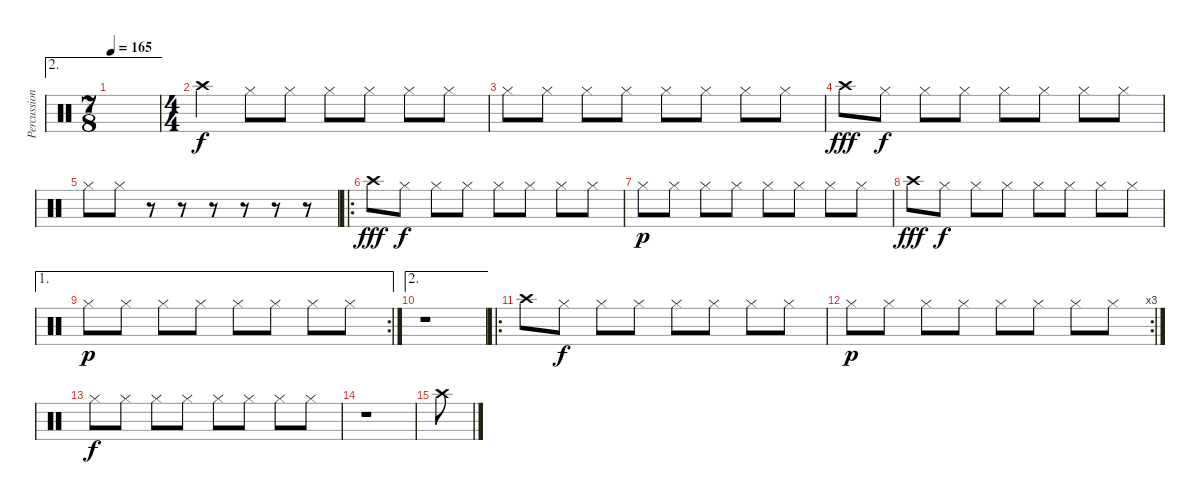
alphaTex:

\track ("Percussion" "Percussion") {instrument percussion}
\staff {score}
\articulation defaults
\ae 2
\ts (7 8)
\tempo 165
\clef neutral
\ks c
|
\ts (4 4)
"Crash high (hit)".4 "Hi-Hat (closed)".8{dy f} "Hi-Hat (closed)".8 "Hi-Hat (closed)".8 "Hi-Hat (closed)".8 "Hi-Hat (closed)".8 "Hi-Hat (closed)".8 |
"Hi-Hat (closed)".8 "Hi-Hat (closed)".8 "Hi-Hat (closed)".8 "Hi-Hat (closed)".8 "Hi-Hat (closed)".8 "Hi-Hat (closed)".8 "Hi-Hat (closed)".8 "Hi-Hat (closed)".8 |
"Crash high (hit)".8{dy fff} "Hi-Hat (closed)".8{dy f} "Hi-Hat (closed)".8 "Hi-Hat (closed)".8 "Hi-Hat (closed)".8 "Hi-Hat (closed)".8 "Hi-Hat (closed)".8 "Hi-Hat (closed)".8 |
"Hi-Hat (closed)".8 "Hi-Hat (closed)".8 r.8 r.8 r.8 r.8 r.8 r.8 |
\ro "Crash high (hit)".8{dy fff} "Hi-Hat (closed)".8{dy f} "Hi-Hat (closed)".8 "Hi-Hat (closed)".8 "Hi-Hat (closed)".8 "Hi-Hat (closed)".8 "Hi-Hat (closed)".8 "Hi-Hat (closed)".8
|
"Hi-Hat (closed)".8{dy p} "Hi-Hat (closed)".8 "Hi-Hat (closed)".8 "Hi-Hat (closed)".8 "Hi-Hat (closed)".8 "Hi-Hat (closed)".8 "Hi-Hat (closed)".8 "Hi-Hat (closed)".8 |
"Crash high (hit)".8{dy fff} "Hi-Hat (closed)".8{dy f} "Hi-Hat (closed)".8 "Hi-Hat (closed)".8 "Hi-Hat (closed)".8 "Hi-Hat (closed)".8 "Hi-Hat (closed)".8 "Hi-Hat (closed)".8 |
\ae 1
\rc 2 "Hi-Hat (closed)".8{dy p} "Hi-Hat (closed)".8 "Hi-Hat (closed)".8 "Hi-Hat (closed)".8 "Hi-Hat (closed)".8 "Hi-Hat (closed)".8 "Hi-Hat (closed)".8 "Hi-Hat (closed)".8
|
\ae 2
r.1 |
\ro "Crash high (hit)".8 "Hi-Hat (closed)".8{dy f} "Hi-Hat (closed)".8 "Hi-Hat (closed)".8 "Hi-Hat (closed)".8 "Hi-Hat (closed)".8 "Hi-Hat (closed)".8 "Hi-Hat (closed)".8
|
\rc 3 "Hi-Hat (closed)".8{dy p} "Hi-Hat (closed)".8 "Hi-Hat (closed)".8 "Hi-Hat (closed)".8 "Hi-Hat (closed)".8 "Hi-Hat (closed)".8 "Hi-Hat (closed)".8 "Hi-Hat (closed)".8
|
"Hi-Hat (closed)".8{dy f} "Hi-Hat (closed)".8 "Hi-Hat (closed)".8 "Hi-Hat (closed)".8 "Hi-Hat (closed)".8 "Hi-Hat (closed)".8 "Hi-Hat (closed)".8 "Hi-Hat (closed)".8 |
r.1 |
"Crash high (hit)".8
